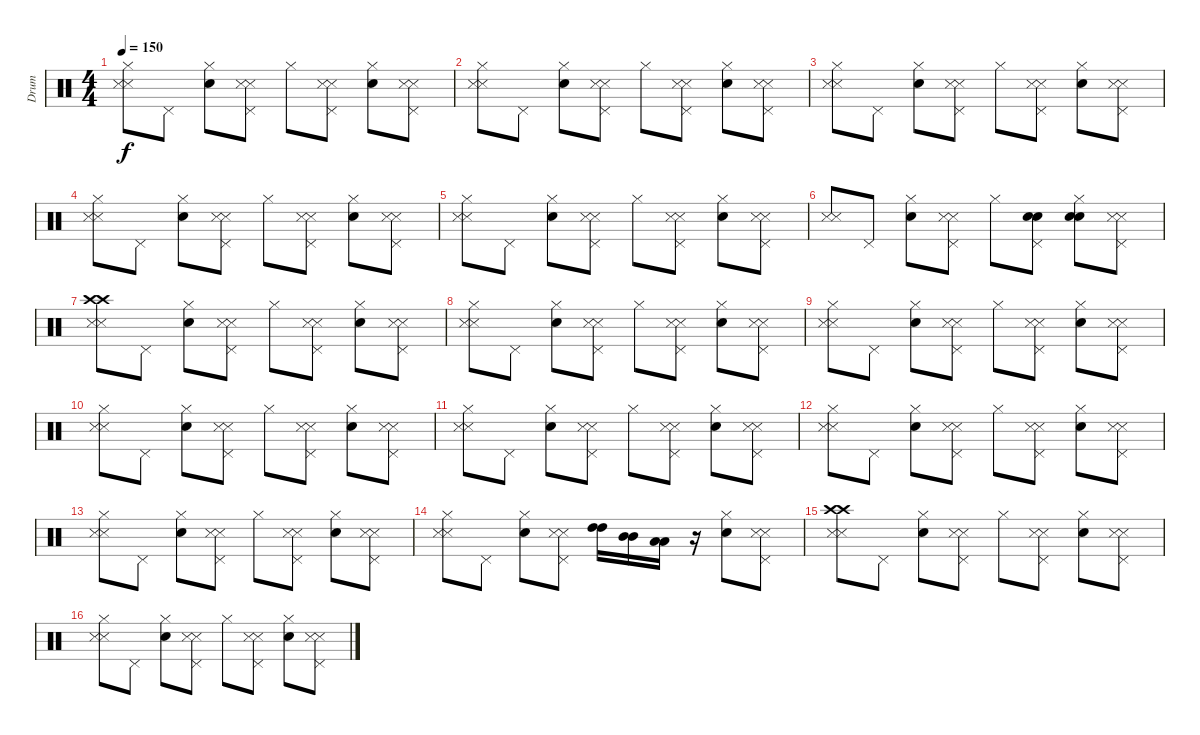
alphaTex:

\track ("Drum" "Drum") {instrument percussion}
\staff {score}
\articulation defaults
\ts (4 4)
\tempo 150
\clef neutral
\ks c
("Metronome (hit)" "Metronome (hit)" "Hi-Hat (closed)").8{dy f} "Pedal Hi-Hat (hit)".8 ("Electric Snare (hit)" "Hi-Hat (closed)").8 ("Metronome (hit)" "Metronome (hit)" "Pedal Hi-Hat (hit)").8 "Hi-Hat (closed)".8 ("Metronome (hit)" "Metronome (hit)" "Pedal Hi-Hat (hit)").8 ("Electric Snare (hit)" "Hi-Hat (closed)").8 ("Metronome (hit)" "Metronome (hit)" "Pedal Hi-Hat (hit)").8 |
("Metronome (hit)" "Metronome (hit)" "Hi-Hat (closed)").8 "Pedal Hi-Hat (hit)".8 ("Electric Snare (hit)" "Hi-Hat (closed)").8 ("Metronome (hit)" "Metronome (hit)" "Pedal Hi-Hat (hit)").8 "Hi-Hat (closed)".8 ("Metronome (hit)" "Metronome (hit)" "Pedal Hi-Hat (hit)").8 ("Electric Snare (hit)" "Hi-Hat (closed)").8 ("Metronome (hit)" "Metronome (hit)" "Pedal Hi-Hat (hit)").8 |
("Metronome (hit)" "Metronome (hit)" "Hi-Hat (closed)").8 "Pedal Hi-Hat (hit)".8 ("Electric Snare (hit)" "Hi-Hat (closed)").8 ("Metronome (hit)" "Metronome (hit)" "Pedal Hi-Hat (hit)").8 "Hi-Hat (closed)".8 ("Metronome (hit)" "Metronome (hit)" "Pedal Hi-Hat (hit)").8 ("Electric Snare (hit)" "Hi-Hat (closed)").8 ("Metronome (hit)" "Metronome (hit)" "Pedal Hi-Hat (hit)").8 |
("Metronome (hit)" "Metronome (hit)" "Hi-Hat (closed)").8 "Pedal Hi-Hat (hit)".8 ("Electric Snare (hit)" "Hi-Hat (closed)").8 ("Metronome (hit)" "Metronome (hit)" "Pedal Hi-Hat (hit)").8 "Hi-Hat (closed)".8 ("Metronome (hit)" "Metronome (hit)" "Pedal Hi-Hat (hit)").8 ("Electric Snare (hit)" "Hi-Hat (closed)").8 ("Metronome (hit)" "Metronome (hit)" "Pedal Hi-Hat (hit)").8 |
("Metronome (hit)" "Metronome (hit)" "Hi-Hat (closed)").8 "Pedal Hi-Hat (hit)".8 ("Electric Snare (hit)" "Hi-Hat (closed)").8 ("Metronome (hit)" "Metronome (hit)" "Pedal Hi-Hat (hit)").8 "Hi-Hat (closed)".8 ("Metronome (hit)" "Metronome (hit)" "Pedal Hi-Hat (hit)").8 ("Electric Snare (hit)" "Hi-Hat (closed)").8 ("Metronome (hit)" "Metronome (hit)" "Pedal Hi-Hat (hit)").8 |
("Metronome (hit)" "Metronome (hit)").8 "Pedal Hi-Hat (hit)".8 ("Electric Snare (hit)" "Hi-Hat (closed)").8 ("Metronome (hit)" "Metronome (hit)" "Pedal Hi-Hat (hit)").8 "Hi-Hat (closed)".8 ("Electric Snare (hit)" "Electric Snare (hit)" "Pedal Hi-Hat (hit)").8 ("Electric Snare (hit)" "Electric Snare (hit)" "Hi-Hat (closed)").8 ("Metronome (hit)" "Metronome (hit)" "Pedal Hi-Hat (hit)").8 |
("Metronome (hit)" "Metronome (hit)" "Crash high (hit)" "Crash high (hit)").8 "Pedal Hi-Hat (hit)".8 ("Electric Snare (hit)" "Hi-Hat (closed)").8 ("Metronome (hit)" "Metronome (hit)" "Pedal Hi-Hat (hit)").8 "Hi-Hat (closed)".8 ("Metronome (hit)" "Metronome (hit)" "Pedal Hi-Hat (hit)").8 ("Electric Snare (hit)" "Hi-Hat (closed)").8 ("Metronome (hit)" "Metronome (hit)" "Pedal Hi-Hat (hit)").8 |
("Metronome (hit)" "Metronome (hit)" "Hi-Hat (closed)").8 "Pedal Hi-Hat (hit)".8 ("Electric Snare (hit)" "Hi-Hat (closed)").8 ("Metronome (hit)" "Metronome (hit)" "Pedal Hi-Hat (hit)").8 "Hi-Hat (closed)".8 ("Metronome (hit)" "Metronome (hit)" "Pedal Hi-Hat (hit)").8 ("Electric Snare (hit)" "Hi-Hat (closed)").8 ("Metronome (hit)" "Metronome (hit)" "Pedal Hi-Hat (hit)").8 |
("Metronome (hit)" "Metronome (hit)" "Hi-Hat (closed)").8 "Pedal Hi-Hat (hit)".8 ("Electric Snare (hit)" "Hi-Hat (closed)").8 ("Metronome (hit)" "Metronome (hit)" "Pedal Hi-Hat (hit)").8 "Hi-Hat (closed)".8 ("Metronome (hit)" "Metronome (hit)" "Pedal Hi-Hat (hit)").8 ("Electric Snare (hit)" "Hi-Hat (closed)").8 ("Metronome (hit)" "Metronome (hit)" "Pedal Hi-Hat (hit)").8 |
("Metronome (hit)" "Metronome (hit)" "Hi-Hat (closed)").8 "Pedal Hi-Hat (hit)".8 ("Electric Snare (hit)" "Hi-Hat (closed)").8 ("Metronome (hit)" "Metronome (hit)" "Pedal Hi-Hat (hit)").8 "Hi-Hat (closed)".8 ("Metronome (hit)" "Metronome (hit)" "Pedal Hi-Hat (hit)").8 ("Electric Snare (hit)" "Hi-Hat (closed)").8 ("Metronome (hit)" "Metronome (hit)" "Pedal Hi-Hat (hit)").8 |
("Metronome (hit)" "Metronome (hit)" "Hi-Hat (closed)").8 "Pedal Hi-Hat (hit)".8 ("Electric Snare (hit)" "Hi-Hat (closed)").8 ("Metronome (hit)" "Metronome (hit)" "Pedal Hi-Hat (hit)").8 "Hi-Hat (closed)".8 ("Metronome (hit)" "Metronome (hit)" "Pedal Hi-Hat (hit)").8 ("Electric Snare (hit)" "Hi-Hat (closed)").8 ("Metronome (hit)" "Metronome (hit)" "Pedal Hi-Hat (hit)").8 |
("Metronome (hit)" "Metronome (hit)" "Hi-Hat (closed)").8 "Pedal Hi-Hat (hit)".8 ("Electric Snare (hit)" "Hi-Hat (closed)").8 ("Metronome (hit)" "Metronome (hit)" "Pedal Hi-Hat (hit)").8 "Hi-Hat (closed)".8 ("Metronome (hit)" "Metronome (hit)" "Pedal Hi-Hat (hit)").8 ("Electric Snare (hit)" "Hi-Hat (closed)").8 ("Metronome (hit)" "Metronome (hit)" "Pedal Hi-Hat (hit)").8 |
("Metronome (hit)" "Metronome (hit)" "Hi-Hat (closed)").8 "Pedal Hi-Hat (hit)".8 ("Electric Snare (hit)" "Hi-Hat (closed)").8 ("Metronome (hit)" "Metronome (hit)" "Pedal Hi-Hat (hit)").8 "Hi-Hat (closed)".8 ("Metronome (hit)" "Metronome (hit)" "Pedal Hi-Hat (hit)").8 ("Electric Snare (hit)" "Hi-Hat (closed)").8 ("Metronome (hit)" "Metronome (hit)" "Pedal Hi-Hat (hit)").8 |
("Metronome (hit)" "Metronome (hit)" "Hi-Hat (closed)").8 "Pedal Hi-Hat (hit)".8 ("Electric Snare (hit)" "Hi-Hat (closed)").8 ("Metronome (hit)" "Metronome (hit)" "Pedal Hi-Hat (hit)").8 ("High Tom (hit)" "High Tom (hit)").16 ("Mid Tom (hit)" "Mid Tom (hit)").16 ("Low Tom (hit)" "Low Tom (hit)").16 r.16 ("Electric Snare (hit)" "Hi-Hat (closed)").8 ("Metronome (hit)" "Metronome (hit)" "Pedal Hi-Hat (hit)").8 |
("Metronome (hit)" "Metronome (hit)" "Crash high (hit)" "Crash high (hit)").8 "Pedal Hi-Hat (hit)".8 ("Electric Snare (hit)" "Hi-Hat (closed)").8 ("Metronome (hit)" "Metronome (hit)" "Pedal Hi-Hat (hit)").8 "Hi-Hat (closed)".8 ("Metronome (hit)" "Metronome (hit)" "Pedal Hi-Hat (hit)").8 ("Electric Snare (hit)" "Hi-Hat (closed)").8 ("Metronome (hit)" "Metronome (hit)" "Pedal Hi-Hat (hit)").8 |
("Metronome (hit)" "Metronome (hit)" "Hi-Hat (closed)").8 "Pedal Hi-Hat (hit)".8 ("Electric Snare (hit)" "Hi-Hat (closed)").8 ("Metronome (hit)" "Metronome (hit)" "Pedal Hi-Hat (hit)").8 "Hi-Hat (closed)".8 ("Metronome (hit)" "Metronome (hit)" "Pedal Hi-Hat (hit)").8 ("Electric Snare (hit)" "Hi-Hat (closed)").8 ("Metronome (hit)" "Metronome (hit)" "Pedal Hi-Hat (hit)").8
